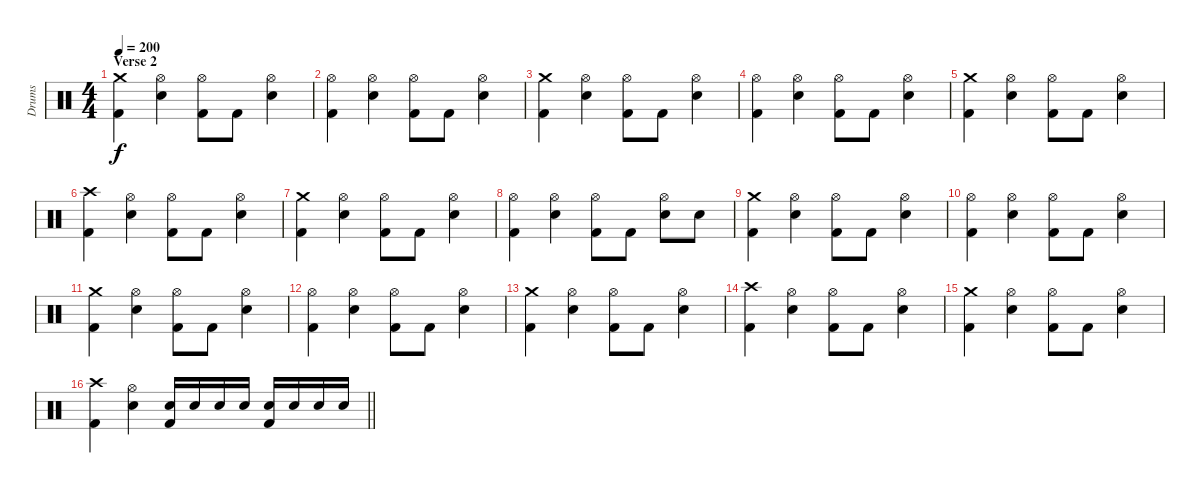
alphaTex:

\track ("Drums" "Drums") {instrument percussion}
\staff {score}
\articulation defaults
\ts (4 4)
\section ("" "Verse 2")
\tempo 200
\clef neutral
\ks c
("Crash medium (hit)" "Kick (hit) 2").4{dy f} ("Hi-Hat (open)" "Electric Snare (hit)").4 ("Hi-Hat (open)" "Kick (hit) 2").8 "Kick (hit) 2".8 ("Hi-Hat (open)" "Electric Snare (hit)").4 |
("Hi-Hat (open)" "Kick (hit) 2").4 ("Hi-Hat (open)" "Electric Snare (hit)").4 ("Hi-Hat (open)" "Kick (hit) 2").8 "Kick (hit) 2".8 ("Hi-Hat (open)" "Electric Snare (hit)").4 |
("Crash medium (hit)" "Kick (hit) 2").4 ("Hi-Hat (open)" "Electric Snare (hit)").4 ("Hi-Hat (open)" "Kick (hit) 2").8 "Kick (hit) 2".8 ("Hi-Hat (open)" "Electric Snare (hit)").4 |
("Hi-Hat (open)" "Kick (hit) 2").4 ("Hi-Hat (open)" "Electric Snare (hit)").4 ("Hi-Hat (open)" "Kick (hit) 2").8 "Kick (hit) 2".8 ("Hi-Hat (open)" "Electric Snare (hit)").4 |
("Crash medium (hit)" "Kick (hit) 2").4 ("Hi-Hat (open)" "Electric Snare (hit)").4 ("Hi-Hat (open)" "Kick (hit) 2").8 "Kick (hit) 2".8 ("Hi-Hat (open)" "Electric Snare (hit)").4 |
("Crash high (hit)" "Kick (hit) 2").4 ("Hi-Hat (open)" "Electric Snare (hit)").4 ("Hi-Hat (open)" "Kick (hit) 2").8 "Kick (hit) 2".8 ("Hi-Hat (open)" "Electric Snare (hit)").4 |
("Crash medium (hit)" "Kick (hit) 2").4 ("Hi-Hat (open)" "Electric Snare (hit)").4 ("Hi-Hat (open)" "Kick (hit) 2").8 "Kick (hit) 2".8 ("Hi-Hat (open)" "Electric Snare (hit)").4 |
("Hi-Hat (open)" "Kick (hit) 2").4 ("Hi-Hat (open)" "Electric Snare (hit)").4 ("Hi-Hat (open)" "Kick (hit) 2").8 "Kick (hit) 2".8 ("Hi-Hat (open)" "Electric Snare (hit)").8 "Electric Snare (hit)".8 |
("Crash medium (hit)" "Kick (hit) 2").4 ("Hi-Hat (open)" "Electric Snare (hit)").4 ("Hi-Hat (open)" "Kick (hit) 2").8 "Kick (hit) 2".8 ("Hi-Hat (open)" "Electric Snare (hit)").4 |
("Hi-Hat (open)" "Kick (hit) 2").4 ("Hi-Hat (open)" "Electric Snare (hit)").4 ("Hi-Hat (open)" "Kick (hit) 2").8 "Kick (hit) 2".8 ("Hi-Hat (open)" "Electric Snare (hit)").4 |
("Crash medium (hit)" "Kick (hit) 2").4 ("Hi-Hat (open)" "Electric Snare (hit)").4 ("Hi-Hat (open)" "Kick (hit) 2").8 "Kick (hit) 2".8 ("Hi-Hat (open)" "Electric Snare (hit)").4 |
("Hi-Hat (open)" "Kick (hit) 2").4 ("Hi-Hat (open)" "Electric Snare (hit)").4 ("Hi-Hat (open)" "Kick (hit) 2").8 "Kick (hit) 2".8 ("Hi-Hat (open)" "Electric Snare (hit)").4 |
("Crash medium (hit)" "Kick (hit) 2").4 ("Hi-Hat (open)" "Electric Snare (hit)").4 ("Hi-Hat (open)" "Kick (hit) 2").8 "Kick (hit) 2".8 ("Hi-Hat (open)" "Electric Snare (hit)").4 |
("Crash high (hit)" "Kick (hit) 2").4 ("Hi-Hat (open)" "Electric Snare (hit)").4 ("Hi-Hat (open)" "Kick (hit) 2").8 "Kick (hit) 2".8 ("Hi-Hat (open)" "Electric Snare (hit)").4 |
("Crash medium (hit)" "Kick (hit) 2").4 ("Hi-Hat (open)" "Electric Snare (hit)").4 ("Hi-Hat (open)" "Kick (hit) 2").8 "Kick (hit) 2".8 ("Hi-Hat (open)" "Electric Snare (hit)").4 |
\barLineRight lightlight
("Crash high (hit)" "Kick (hit) 2").4 ("Hi-Hat (open)" "Electric Snare (hit)").4 ("Electric Snare (hit)" "Kick (hit) 2").16 "Electric Snare (hit)".16 "Electric Snare (hit)".16 "Electric Snare (hit)".16 ("Electric Snare (hit)" "Kick (hit) 2").16 "Electric Snare (hit)".16 "Electric Snare (hit)".16 "Electric Snare (hit)".16
